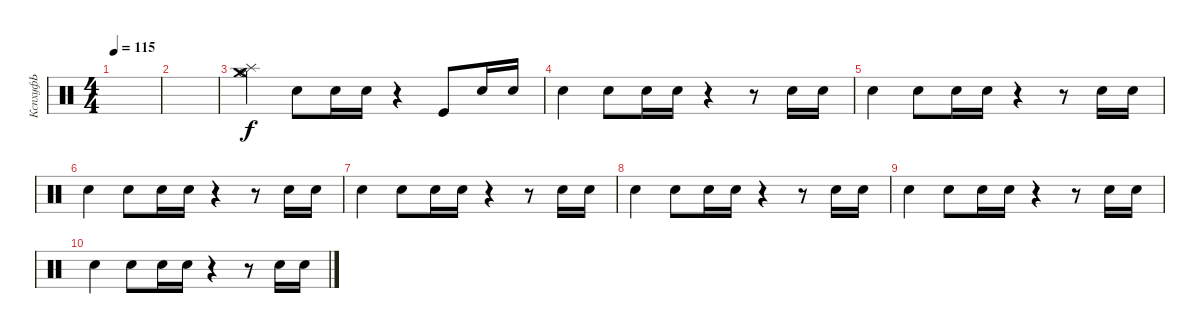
\track ("КспхуфЬ" "КспхуфЬ") {instrument percussion}
\staff {score}
\articulation defaults
\ts (4 4)
\tempo 115
\clef neutral
\ks c
|
|
("Splash (hit)" "Crash medium (hit)" "Hi-Hat (open)").4 "Snare (hit)"{x}.8 "Snare (hit) 2".16 "Snare (hit) 2".16 r.4 "Kick (hit)"{x}.8 "Snare (hit) 2".16 "Snare (hit) 2".16 |
"Snare (hit)"{x}.4 "Snare (hit)"{x}.8 "Snare (hit) 2".16 "Snare (hit) 2".16 r.4 r.8 "Snare (hit) 2".16 "Snare (hit) 2".16 |
"Snare (hit)"{x}.4 "Snare (hit)"{x}.8 "Snare (hit) 2".16 "Snare (hit) 2".16 r.4 r.8 "Snare (hit) 2".16 "Snare (hit) 2".16 |
"Snare (hit)"{x}.4 "Snare (hit)"{x}.8 "Snare (hit) 2".16 "Snare (hit) 2".16 r.4 r.8 "Snare (hit) 2".16 "Snare (hit) 2".16 |
"Snare (hit)"{x}.4 "Snare (hit)"{x}.8 "Snare (hit) 2".16 "Snare (hit) 2".16 r.4 r.8 "Snare (hit) 2".16 "Snare (hit) 2".16 |
"Snare (hit)"{x}.4 "Snare (hit)"{x}.8 "Snare (hit) 2".16 "Snare (hit) 2".16 r.4 r.8 "Snare (hit) 2".16 "Snare (hit) 2".16 |
"Snare (hit)"{x}.4 "Snare (hit)"{x}.8 "Snare (hit) 2".16 "Snare (hit) 2".16 r.4 r.8 "Snare (hit) 2".16 "Snare (hit) 2".16 |
"Snare (hit)"{x}.4 "Snare (hit)"{x}.8 "Snare (hit) 2".16 "Snare (hit) 2".16 r.4 r.8 "Snare (hit) 2".16 "Snare (hit) 2".16
